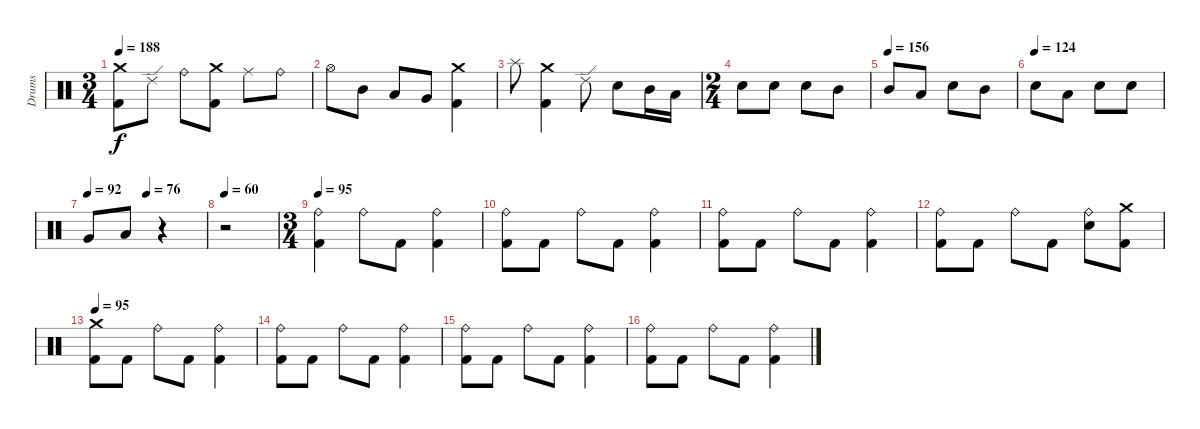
\track ("Drums" "Drums") {instrument percussion}
\staff {score}
\articulation defaults
\ts (3 4)
\tempo 188
\clef neutral
\ks c
("Crash medium (hit)" "Kick (hit) 2").8{dy f} "Ride (edge) 2".8 "Ride (bell)".8 ("Crash medium (hit)" "Kick (hit) 2").8 "Ride (middle)".8 "Ride (bell)".8 |
"Hi-Hat (open)".8 "Mid Tom (hit)".8 "Low Tom (hit)".8 "Very Low Tom (hit)".8 ("Crash medium (hit)" "Kick (hit) 2").4 |
"Splash (hit)".8 ("Crash medium (hit)" "Kick (hit) 2").4 "Ride (edge) 2".8 "Electric Snare (hit)".8 "Mid Tom (hit)".16 "Low Tom (hit)".16 |
\ts (2 4)
"Electric Snare (hit)".8 "Electric Snare (hit)".8 "Snare (hit) 2".8 "Mid Tom (hit)".8 |
\tempo (156)
"Mid Tom (hit)".8 "Low Tom (hit)".8 "Electric Snare (hit)".8 "Mid Tom (hit)".8 |
\tempo (124)
"Electric Snare (hit)".8 "Low Tom (hit)".8 "Electric Snare (hit)".8 "Snare (hit) 2".8 |
\tempo 92
\tempo (76 0.5)
"Very Low Tom (hit)".8 "Low Floor Tom (hit)".8 r.4 |
\tempo 60
r.2 |
\ts (3 4)
\tempo 95
("Ride (bell)" "Kick (hit) 2").4 "Ride (bell)".8 "Kick (hit) 2".8 ("Ride (bell)" "Kick (hit) 2").4 |
("Ride (bell)" "Kick (hit) 2").8 "Kick (hit) 2".8 "Ride (bell)".8 "Kick (hit) 2".8 ("Ride (bell)" "Kick (hit) 2").4 |
("Ride (bell)" "Kick (hit) 2").8 "Kick (hit) 2".8 "Ride (bell)".8 "Kick (hit) 2".8 ("Ride (bell)" "Kick (hit) 2").4 |
("Ride (bell)" "Kick (hit) 2").8 "Kick (hit) 2".8 "Ride (bell)".8 "Kick (hit) 2".8 ("Electric Snare (hit)" "Ride (bell)").8 ("Crash medium (hit)" "Kick (hit) 2").8 |
\tempo 95
("Crash medium (hit)" "Kick (hit) 2").8 "Kick (hit) 2".8 "Ride (bell)".8 "Kick (hit) 2".8 ("Ride (bell)" "Kick (hit) 2").4 |
("Ride (bell)" "Kick (hit) 2").8 "Kick (hit) 2".8 "Ride (bell)".8 "Kick (hit) 2".8 ("Ride (bell)" "Kick (hit) 2").4 |
("Ride (bell)" "Kick (hit) 2").8 "Kick (hit) 2".8 "Ride (bell)".8 "Kick (hit) 2".8 ("Ride (bell)" "Kick (hit) 2").4 |
("Ride (bell)" "Kick (hit) 2").8 "Kick (hit) 2".8 "Ride (bell)".8 "Kick (hit) 2".8 ("Ride (bell)" "Kick (hit) 2").4
